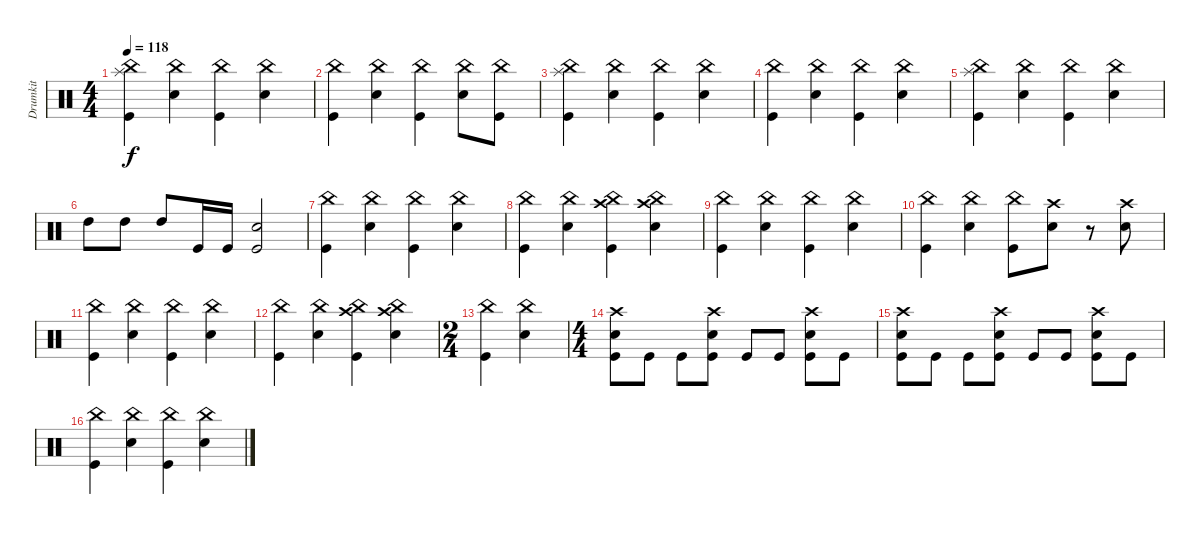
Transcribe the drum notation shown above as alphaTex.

\track ("Drumkit" "Drumkit") {instrument percussion}
\staff {score}
\articulation defaults
\ts (4 4)
\tempo 118
\clef neutral
\ks c
("China (hit)" "Kick (hit)" "Splash (hit)").4{dy f} ("China (hit)" "Snare (hit) 2").4 ("China (hit)" "Kick (hit)").4 ("China (hit)" "Snare (hit) 2").4 |
("China (hit)" "Kick (hit)").4 ("China (hit)" "Snare (hit) 2").4 ("China (hit)" "Kick (hit)").4 ("China (hit)" "Snare (hit) 2").8 ("China (hit)" "Kick (hit)").8 |
("China (hit)" "Kick (hit)" "Splash (hit)").4 ("China (hit)" "Snare (hit) 2").4 ("China (hit)" "Kick (hit)").4 ("China (hit)" "Snare (hit) 2").4 |
("China (hit)" "Kick (hit)").4 ("China (hit)" "Snare (hit) 2").4 ("China (hit)" "Kick (hit)").4 ("China (hit)" "Snare (hit) 2").4 |
("China (hit)" "Kick (hit)" "Splash (hit)").4 ("China (hit)" "Snare (hit) 2").4 ("China (hit)" "Kick (hit)").4 ("China (hit)" "Snare (hit) 2").4 |
"High Tom (hit)".8 "High Tom (hit)".8 "High Tom (hit)".8 "Kick (hit)".16 "Kick (hit)".16 ("Kick (hit)" "Snare (hit) 2").2 |
("China (hit)" "Kick (hit)").4 ("China (hit)" "Snare (hit) 2").4 ("China (hit)" "Kick (hit)").4 ("China (hit)" "Snare (hit) 2").4 |
("China (hit)" "Kick (hit)").4 ("China (hit)" "Snare (hit) 2").4 ("China (hit)" "Kick (hit)" "Crash high (hit)").4 ("China (hit)" "Snare (hit) 2" "Crash high (hit)").4 |
("China (hit)" "Kick (hit)").4 ("China (hit)" "Snare (hit) 2").4 ("China (hit)" "Kick (hit)").4 ("China (hit)" "Snare (hit) 2").4 |
("China (hit)" "Kick (hit)").4 ("China (hit)" "Snare (hit) 2").4 ("China (hit)" "Kick (hit)").8 ("Snare (hit) 2" "Crash high (hit)").8 r.8 ("Snare (hit) 2" "Crash high (hit)").8 |
("China (hit)" "Kick (hit)").4 ("China (hit)" "Snare (hit) 2").4 ("China (hit)" "Kick (hit)").4 ("China (hit)" "Snare (hit) 2").4 |
("China (hit)" "Kick (hit)").4 ("China (hit)" "Snare (hit) 2").4 ("China (hit)" "Kick (hit)" "Crash high (hit)").4 ("China (hit)" "Snare (hit) 2" "Crash high (hit)").4 |
\ts (2 4)
("China (hit)" "Kick (hit)").4 ("China (hit)" "Snare (hit) 2").4 |
\ts (4 4)
("Crash high (hit)" "Kick (hit)" "Snare (hit) 2").8 "Kick (hit)".8 "Kick (hit)".8 ("Crash high (hit)" "Kick (hit)" "Snare (hit) 2").8 "Kick (hit)".8 "Kick (hit)".8 ("Crash high (hit)" "Kick (hit)" "Snare (hit) 2").8 "Kick (hit)".8 |
("Crash high (hit)" "Kick (hit)" "Snare (hit) 2").8 "Kick (hit)".8 "Kick (hit)".8 ("Crash high (hit)" "Kick (hit)" "Snare (hit) 2").8 "Kick (hit)".8 "Kick (hit)".8 ("Crash high (hit)" "Kick (hit)" "Snare (hit) 2").8 "Kick (hit)".8 |
("China (hit)" "Kick (hit)").4 ("China (hit)" "Snare (hit) 2").4 ("China (hit)" "Kick (hit)").4 ("China (hit)" "Snare (hit) 2").4
